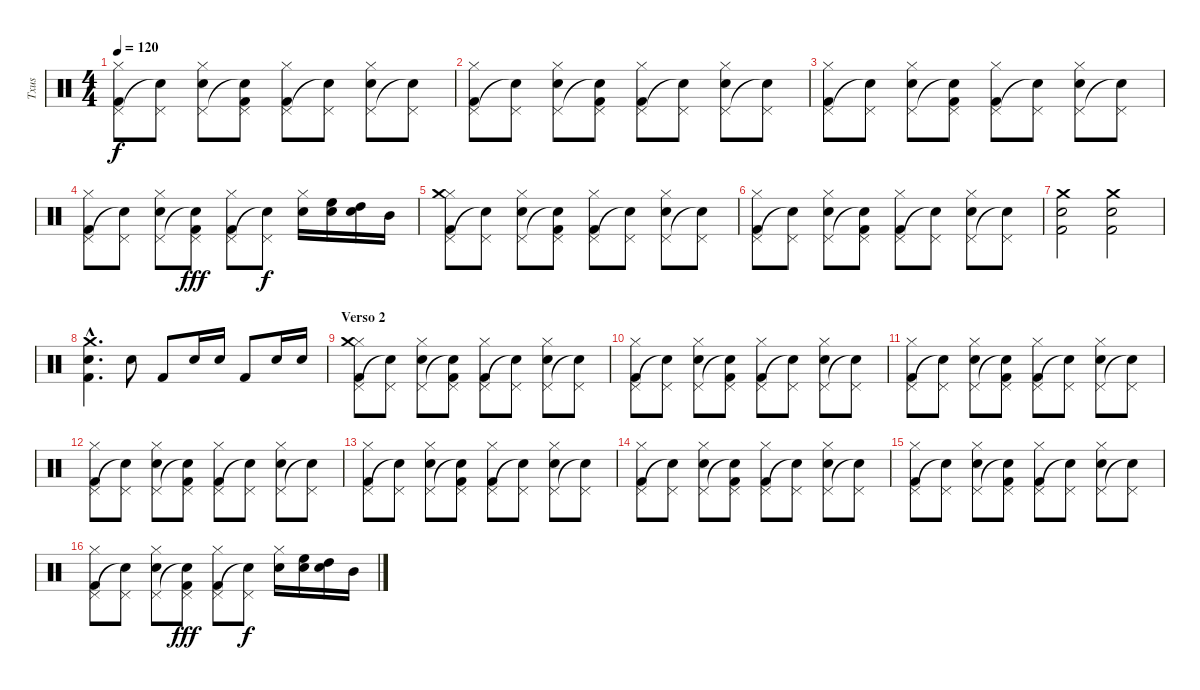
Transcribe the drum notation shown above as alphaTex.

\track ("Txus" "Txus") {instrument percussion}
\staff {score}
\articulation defaults
\ts (4 4)
\tempo 120
\clef neutral
\ks c
("Hi-Hat (closed)" "Pedal Hi-Hat (hit)" "Kick (hit) 2").8{dy f} ("Pedal Hi-Hat (hit)" "Snare (hit)"{t}).8 ("Hi-Hat (closed)" "Pedal Hi-Hat (hit)" "Snare (hit) 2").8 ("Pedal Hi-Hat (hit)" "Snare (hit)"{t} "Kick (hit) 2").8 ("Hi-Hat (closed)" "Pedal Hi-Hat (hit)" "Kick (hit) 2").8 ("Pedal Hi-Hat (hit)" "Snare (hit)"{t}).8 ("Hi-Hat (closed)" "Pedal Hi-Hat (hit)" "Snare (hit) 2").8 ("Pedal Hi-Hat (hit)" "Snare (hit) 2"{t}).8 |
("Hi-Hat (closed)" "Pedal Hi-Hat (hit)" "Kick (hit) 2").8 ("Pedal Hi-Hat (hit)" "Snare (hit)"{t}).8 ("Hi-Hat (closed)" "Pedal Hi-Hat (hit)" "Snare (hit) 2").8 ("Pedal Hi-Hat (hit)" "Snare (hit)"{t} "Kick (hit) 2").8 ("Hi-Hat (closed)" "Pedal Hi-Hat (hit)" "Kick (hit) 2").8 ("Pedal Hi-Hat (hit)" "Snare (hit)"{t}).8 ("Hi-Hat (closed)" "Pedal Hi-Hat (hit)" "Snare (hit) 2").8 ("Pedal Hi-Hat (hit)" "Snare (hit) 2"{t}).8 |
("Hi-Hat (closed)" "Pedal Hi-Hat (hit)" "Kick (hit) 2").8 ("Pedal Hi-Hat (hit)" "Snare (hit)"{t}).8 ("Hi-Hat (closed)" "Pedal Hi-Hat (hit)" "Snare (hit) 2").8 ("Pedal Hi-Hat (hit)" "Snare (hit)"{t} "Kick (hit) 2").8 ("Hi-Hat (closed)" "Pedal Hi-Hat (hit)" "Kick (hit) 2").8 ("Pedal Hi-Hat (hit)" "Snare (hit)"{t}).8 ("Hi-Hat (closed)" "Pedal Hi-Hat (hit)" "Snare (hit) 2").8 ("Pedal Hi-Hat (hit)" "Snare (hit) 2"{t}).8 |
("Hi-Hat (closed)" "Pedal Hi-Hat (hit)" "Kick (hit) 2").8 ("Pedal Hi-Hat (hit)" "Snare (hit)"{t}).8 ("Hi-Hat (closed)" "Pedal Hi-Hat (hit)" "Snare (hit) 2").8 ("Pedal Hi-Hat (hit)" "Snare (hit)"{t} "Kick (hit) 2").8{dy fff} ("Hi-Hat (closed)" "Pedal Hi-Hat (hit)" "Kick (hit) 2").8 ("Pedal Hi-Hat (hit)" "Snare (hit)"{t}).8{dy f} ("Hi-Hat (closed)" "Snare (hit) 2").16 ("High Floor Tom (hit)" "Snare (hit) 2").16 ("High Tom (hit)" "Snare (hit) 2").16 "Mid Tom (hit)".16 |
("Hi-Hat (closed)" "Pedal Hi-Hat (hit)" "Crash medium (hit)" "Kick (hit) 2").8 ("Pedal Hi-Hat (hit)" "Snare (hit)"{t}).8 ("Hi-Hat (closed)" "Pedal Hi-Hat (hit)" "Snare (hit) 2").8 ("Pedal Hi-Hat (hit)" "Snare (hit)"{t} "Kick (hit) 2").8 ("Hi-Hat (closed)" "Pedal Hi-Hat (hit)" "Kick (hit) 2").8 ("Pedal Hi-Hat (hit)" "Snare (hit)"{t}).8 ("Hi-Hat (closed)" "Pedal Hi-Hat (hit)" "Snare (hit) 2").8 ("Pedal Hi-Hat (hit)" "Snare (hit) 2"{t}).8 |
("Hi-Hat (closed)" "Pedal Hi-Hat (hit)" "Kick (hit) 2").8 ("Pedal Hi-Hat (hit)" "Snare (hit)"{t}).8 ("Hi-Hat (closed)" "Pedal Hi-Hat (hit)" "Snare (hit) 2").8 ("Pedal Hi-Hat (hit)" "Snare (hit)"{t} "Kick (hit) 2").8 ("Hi-Hat (closed)" "Pedal Hi-Hat (hit)" "Kick (hit) 2").8 ("Pedal Hi-Hat (hit)" "Snare (hit)"{t}).8 ("Hi-Hat (closed)" "Pedal Hi-Hat (hit)" "Snare (hit) 2").8 ("Pedal Hi-Hat (hit)" "Snare (hit) 2"{t}).8 |
("Crash medium (hit)" "Snare (hit) 2" "Kick (hit) 2").2 ("Crash medium (hit)" "Snare (hit) 2" "Kick (hit) 2").2 |
("Crash medium (hit)"{hac} "Snare (hit) 2"{hac} "Kick (hit) 2"{hac}).4{d} "Snare (hit) 2".8 "Kick (hit) 2".8 "Snare (hit) 2".16 "Snare (hit) 2".16 "Kick (hit) 2".8 "Snare (hit) 2".16 "Snare (hit) 2".16 |
\section ("" "Verso 2")
("Hi-Hat (closed)" "Pedal Hi-Hat (hit)" "Crash medium (hit)" "Kick (hit) 2").8 ("Pedal Hi-Hat (hit)" "Snare (hit)"{t}).8 ("Hi-Hat (closed)" "Pedal Hi-Hat (hit)" "Snare (hit) 2").8 ("Pedal Hi-Hat (hit)" "Snare (hit)"{t} "Kick (hit) 2").8 ("Hi-Hat (closed)" "Pedal Hi-Hat (hit)" "Kick (hit) 2").8 ("Pedal Hi-Hat (hit)" "Snare (hit)"{t}).8 ("Hi-Hat (closed)" "Pedal Hi-Hat (hit)" "Snare (hit) 2").8 ("Pedal Hi-Hat (hit)" "Snare (hit) 2"{t}).8 |
("Hi-Hat (closed)" "Pedal Hi-Hat (hit)" "Kick (hit) 2").8 ("Pedal Hi-Hat (hit)" "Snare (hit)"{t}).8 ("Hi-Hat (closed)" "Pedal Hi-Hat (hit)" "Snare (hit) 2").8 ("Pedal Hi-Hat (hit)" "Snare (hit)"{t} "Kick (hit) 2").8 ("Hi-Hat (closed)" "Pedal Hi-Hat (hit)" "Kick (hit) 2").8 ("Pedal Hi-Hat (hit)" "Snare (hit)"{t}).8 ("Hi-Hat (closed)" "Pedal Hi-Hat (hit)" "Snare (hit) 2").8 ("Pedal Hi-Hat (hit)" "Snare (hit) 2"{t}).8 |
("Hi-Hat (closed)" "Pedal Hi-Hat (hit)" "Kick (hit) 2").8 ("Pedal Hi-Hat (hit)" "Snare (hit)"{t}).8 ("Hi-Hat (closed)" "Pedal Hi-Hat (hit)" "Snare (hit) 2").8 ("Pedal Hi-Hat (hit)" "Snare (hit)"{t} "Kick (hit) 2").8 ("Hi-Hat (closed)" "Pedal Hi-Hat (hit)" "Kick (hit) 2").8 ("Pedal Hi-Hat (hit)" "Snare (hit)"{t}).8 ("Hi-Hat (closed)" "Pedal Hi-Hat (hit)" "Snare (hit) 2").8 ("Pedal Hi-Hat (hit)" "Snare (hit) 2"{t}).8 |
("Hi-Hat (closed)" "Pedal Hi-Hat (hit)" "Kick (hit) 2").8 ("Pedal Hi-Hat (hit)" "Snare (hit)"{t}).8 ("Hi-Hat (closed)" "Pedal Hi-Hat (hit)" "Snare (hit) 2").8 ("Pedal Hi-Hat (hit)" "Snare (hit)"{t} "Kick (hit) 2").8 ("Hi-Hat (closed)" "Pedal Hi-Hat (hit)" "Kick (hit) 2").8 ("Pedal Hi-Hat (hit)" "Snare (hit)"{t}).8 ("Hi-Hat (closed)" "Pedal Hi-Hat (hit)" "Snare (hit) 2").8 ("Pedal Hi-Hat (hit)" "Snare (hit) 2"{t}).8 |
("Hi-Hat (closed)" "Pedal Hi-Hat (hit)" "Kick (hit) 2").8 ("Pedal Hi-Hat (hit)" "Snare (hit)"{t}).8 ("Hi-Hat (closed)" "Pedal Hi-Hat (hit)" "Snare (hit) 2").8 ("Pedal Hi-Hat (hit)" "Snare (hit)"{t} "Kick (hit) 2").8 ("Hi-Hat (closed)" "Pedal Hi-Hat (hit)" "Kick (hit) 2").8 ("Pedal Hi-Hat (hit)" "Snare (hit)"{t}).8 ("Hi-Hat (closed)" "Pedal Hi-Hat (hit)" "Snare (hit) 2").8 ("Pedal Hi-Hat (hit)" "Snare (hit) 2"{t}).8 |
("Hi-Hat (closed)" "Pedal Hi-Hat (hit)" "Kick (hit) 2").8 ("Pedal Hi-Hat (hit)" "Snare (hit)"{t}).8 ("Hi-Hat (closed)" "Pedal Hi-Hat (hit)" "Snare (hit) 2").8 ("Pedal Hi-Hat (hit)" "Snare (hit)"{t} "Kick (hit) 2").8 ("Hi-Hat (closed)" "Pedal Hi-Hat (hit)" "Kick (hit) 2").8 ("Pedal Hi-Hat (hit)" "Snare (hit)"{t}).8 ("Hi-Hat (closed)" "Pedal Hi-Hat (hit)" "Snare (hit) 2").8 ("Pedal Hi-Hat (hit)" "Snare (hit) 2"{t}).8 |
("Hi-Hat (closed)" "Pedal Hi-Hat (hit)" "Kick (hit) 2").8 ("Pedal Hi-Hat (hit)" "Snare (hit)"{t}).8 ("Hi-Hat (closed)" "Pedal Hi-Hat (hit)" "Snare (hit) 2").8 ("Pedal Hi-Hat (hit)" "Snare (hit)"{t} "Kick (hit) 2").8 ("Hi-Hat (closed)" "Pedal Hi-Hat (hit)" "Kick (hit) 2").8 ("Pedal Hi-Hat (hit)" "Snare (hit)"{t}).8 ("Hi-Hat (closed)" "Pedal Hi-Hat (hit)" "Snare (hit) 2").8 ("Pedal Hi-Hat (hit)" "Snare (hit) 2"{t}).8 |
("Hi-Hat (closed)" "Pedal Hi-Hat (hit)" "Kick (hit) 2").8 ("Pedal Hi-Hat (hit)" "Snare (hit)"{t}).8 ("Hi-Hat (closed)" "Pedal Hi-Hat (hit)" "Snare (hit) 2").8 ("Pedal Hi-Hat (hit)" "Snare (hit)"{t} "Kick (hit) 2").8{dy fff} ("Hi-Hat (closed)" "Pedal Hi-Hat (hit)" "Kick (hit) 2").8 ("Pedal Hi-Hat (hit)" "Snare (hit)"{t}).8{dy f} ("Hi-Hat (closed)" "Snare (hit) 2").16 ("High Floor Tom (hit)" "Snare (hit) 2").16 ("High Tom (hit)" "Snare (hit) 2").16 "Mid Tom (hit)".16
